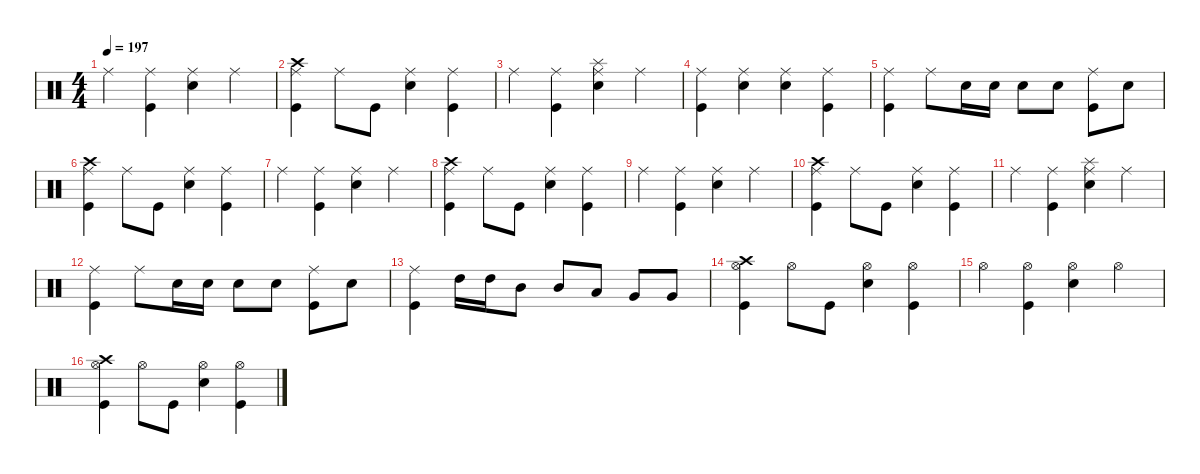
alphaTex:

\defaultSystemsLayout 4
\hideDynamics
\bracketExtendMode nobrackets
\singleTrackTrackNamePolicy hidden
\multiTrackTrackNamePolicy hidden
\firstSystemTrackNameMode fullname
\firstSystemTrackNameOrientation horizontal
\otherSystemsTrackNameOrientation horizontal
\track ("Drums" "drm.") {defaultSystemsLayout 4 instrument percussion}
\staff {score}
\articulation defaults
\ts (4 4)
\tempo 197
\clef neutral
\ks c "Ride (middle)".4{dy f beam Down}
("Ride (middle)" "Kick (hit)").4{beam Down} ("Ride (middle)" "Snare (hit) 2").4{beam Down} "Ride (middle)".4{beam Down} |
("Crash high (hit)" "Ride (middle)" "Kick (hit)").4{beam Down} "Ride (middle)".8{beam Down} "Kick (hit)".8{beam Down} ("Ride (middle)" "Snare (hit) 2").4{beam Down} ("Ride (middle)" "Kick (hit)").4{beam Down} |
"Ride (middle)".4{beam Down} ("Ride (middle)" "Kick (hit)").4{beam Down} ("Splash (hit)" "Ride (middle)" "Snare (hit) 2").4{beam Down} "Ride (middle)".4{beam Down} |
("Ride (middle)" "Kick (hit)").4{beam Down} ("Ride (middle)" "Snare (hit) 2").4{beam Down} ("Ride (middle)" "Snare (hit) 2").4{beam Down} ("Ride (middle)" "Kick (hit)").4{beam Down} |
("Ride (middle)" "Kick (hit)").4{beam Down} "Ride (middle)".8{beam Down} "Snare (hit) 2".16{dy mf beam Down} "Snare (hit) 2".16{beam Down} "Snare (hit) 2".8{dy f beam Down} "Snare (hit) 2".8{beam Down} ("Ride (middle)" "Kick (hit)").8{beam Down} "Snare (hit) 2".8{beam Down} |
("Crash high (hit)" "Ride (middle)" "Kick (hit)").4{beam Down} "Ride (middle)".8{beam Down} "Kick (hit)".8{beam Down} ("Ride (middle)" "Snare (hit) 2").4{beam Down} ("Ride (middle)" "Kick (hit)").4{beam Down} |
"Ride (middle)".4{beam Down} ("Ride (middle)" "Kick (hit)").4{beam Down} ("Ride (middle)" "Snare (hit) 2").4{beam Down} "Ride (middle)".4{beam Down} |
("Crash high (hit)" "Ride (middle)" "Kick (hit)").4{beam Down} "Ride (middle)".8{beam Down} "Kick (hit)".8{beam Down} ("Ride (middle)" "Snare (hit) 2").4{beam Down} ("Ride (middle)" "Kick (hit)").4{beam Down} |
"Ride (middle)".4{beam Down} ("Ride (middle)" "Kick (hit)").4{beam Down} ("Ride (middle)" "Snare (hit) 2").4{beam Down} "Ride (middle)".4{beam Down} |
("Crash high (hit)" "Ride (middle)" "Kick (hit)").4{beam Down} "Ride (middle)".8{beam Down} "Kick (hit)".8{beam Down} ("Ride (middle)" "Snare (hit) 2").4{beam Down} ("Ride (middle)" "Kick (hit)").4{beam Down} |
"Ride (middle)".4{beam Down} ("Ride (middle)" "Kick (hit)").4{beam Down} ("Splash (hit)" "Ride (middle)" "Snare (hit) 2").4{beam Down} "Ride (middle)".4{beam Down} |
("Ride (middle)" "Kick (hit)").4{beam Down} "Ride (middle)".8{beam Down} "Snare (hit) 2".16{dy mf beam Down} "Snare (hit) 2".16{beam Down} "Snare (hit) 2".8{dy f beam Down} "Snare (hit) 2".8{beam Down} ("Ride (middle)" "Kick (hit)").8{beam Down} "Snare (hit) 2".8{beam Down} |
("Ride (middle)" "Kick (hit)").4{beam Down} "High Tom (hit)".16{beam Down} "High Tom (hit)".16{beam Down} "Mid Tom (hit)".8{beam Down} "Mid Tom (hit)".8{beam Up} "Low Tom (hit)".8{beam Up} "Very Low Tom (hit)".8{beam Up} "Very Low Tom (hit)".8{beam Up} |
("Crash high (hit)" "Hi-Hat (open)" "Kick (hit)").4{beam Down} "Hi-Hat (open)".8{beam Down} "Kick (hit)".8{beam Down} ("Hi-Hat (open)" "Snare (hit) 2").4{beam Down} ("Hi-Hat (open)" "Kick (hit)").4{beam Down} |
"Hi-Hat (open)".4{beam Down} ("Hi-Hat (open)" "Kick (hit)").4{beam Down} ("Hi-Hat (open)" "Snare (hit) 2").4{beam Down} "Hi-Hat (open)".4{beam Down} |
("Crash high (hit)" "Hi-Hat (open)" "Kick (hit)").4{beam Down} "Hi-Hat (open)".8{beam Down} "Kick (hit)".8{beam Down} ("Hi-Hat (open)" "Snare (hit) 2").4{beam Down} ("Hi-Hat (open)" "Kick (hit)").4{beam Down}
